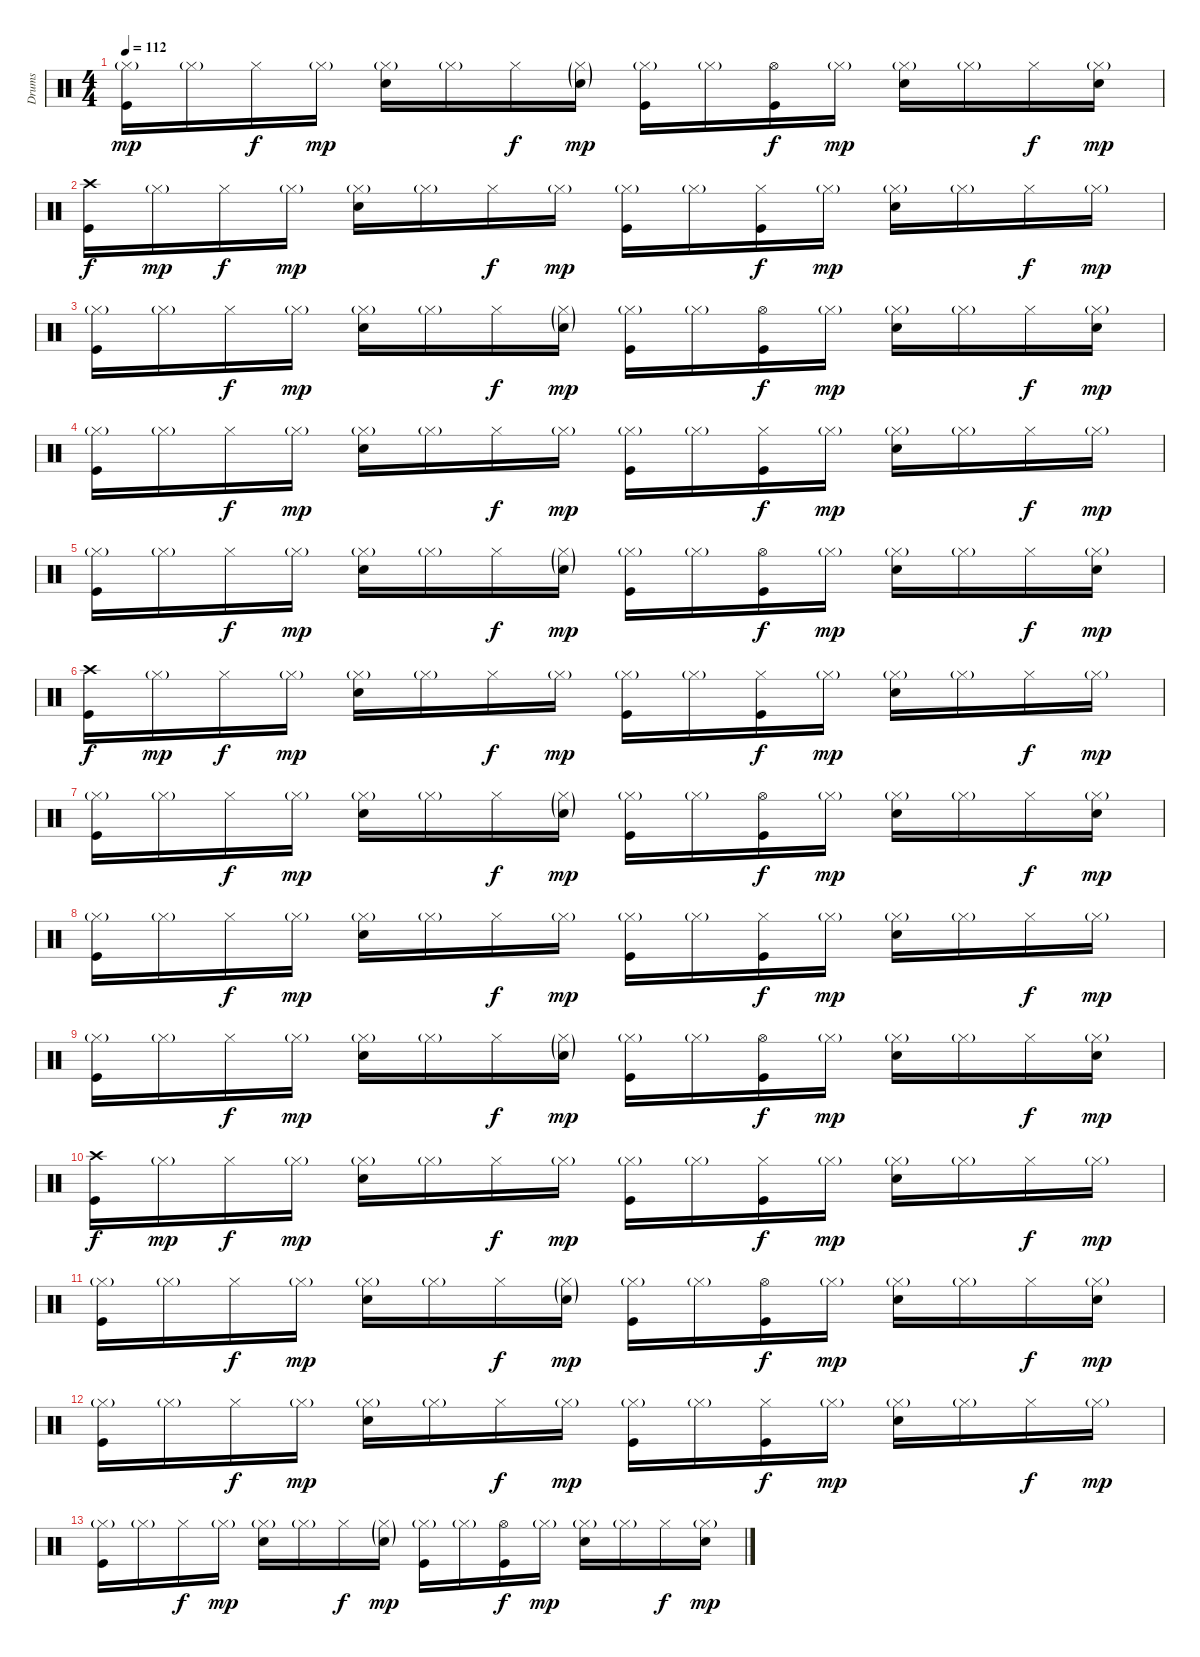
\track ("Drums" "Drums") {instrument percussion}
\staff {score}
\articulation defaults
\ts (4 4)
\tempo 112
\clef neutral
\ks c
("Hi-Hat (closed)"{g} "Kick (hit)").16{dy mp} "Hi-Hat (closed)"{g}.16 "Hi-Hat (closed)".16{dy f} "Hi-Hat (closed)"{g}.16{dy mp} ("Hi-Hat (closed)"{g} "Snare (hit) 2").16 "Hi-Hat (closed)"{g}.16 "Hi-Hat (closed)".16{dy f} ("Hi-Hat (closed)"{g} "Snare (hit) 2"{g}).16{dy mp} ("Hi-Hat (closed)"{g} "Kick (hit)").16 "Hi-Hat (closed)"{g}.16 ("Hi-Hat (open)" "Kick (hit)").16{dy f} "Hi-Hat (closed)"{g}.16{dy mp} ("Hi-Hat (closed)"{g} "Snare (hit) 2").16 "Hi-Hat (closed)"{g}.16 "Hi-Hat (closed)".16{dy f} ("Hi-Hat (closed)"{g} "Snare (hit) 2").16{dy mp} |
("Crash high (hit)" "Kick (hit)").16{dy f} "Hi-Hat (closed)"{g}.16{dy mp} "Hi-Hat (closed)".16{dy f} "Hi-Hat (closed)"{g}.16{dy mp} ("Hi-Hat (closed)"{g} "Snare (hit) 2").16 "Hi-Hat (closed)"{g}.16 "Hi-Hat (closed)".16{dy f} "Hi-Hat (closed)"{g}.16{dy mp} ("Hi-Hat (closed)"{g} "Kick (hit)").16 "Hi-Hat (closed)"{g}.16 ("Hi-Hat (closed)" "Kick (hit)").16{dy f} "Hi-Hat (closed)"{g}.16{dy mp} ("Hi-Hat (closed)"{g} "Snare (hit) 2").16 "Hi-Hat (closed)"{g}.16 "Hi-Hat (closed)".16{dy f} "Hi-Hat (closed)"{g}.16{dy mp} |
("Hi-Hat (closed)"{g} "Kick (hit)").16 "Hi-Hat (closed)"{g}.16 "Hi-Hat (closed)".16{dy f} "Hi-Hat (closed)"{g}.16{dy mp} ("Hi-Hat (closed)"{g} "Snare (hit) 2").16 "Hi-Hat (closed)"{g}.16 "Hi-Hat (closed)".16{dy f} ("Hi-Hat (closed)"{g} "Snare (hit) 2"{g}).16{dy mp} ("Hi-Hat (closed)"{g} "Kick (hit)").16 "Hi-Hat (closed)"{g}.16 ("Hi-Hat (open)" "Kick (hit)").16{dy f} "Hi-Hat (closed)"{g}.16{dy mp} ("Hi-Hat (closed)"{g} "Snare (hit) 2").16 "Hi-Hat (closed)"{g}.16 "Hi-Hat (closed)".16{dy f} ("Hi-Hat (closed)"{g} "Snare (hit) 2").16{dy mp} |
("Hi-Hat (closed)"{g} "Kick (hit)").16 "Hi-Hat (closed)"{g}.16 "Hi-Hat (closed)".16{dy f} "Hi-Hat (closed)"{g}.16{dy mp} ("Hi-Hat (closed)"{g} "Snare (hit) 2").16 "Hi-Hat (closed)"{g}.16 "Hi-Hat (closed)".16{dy f} "Hi-Hat (closed)"{g}.16{dy mp} ("Hi-Hat (closed)"{g} "Kick (hit)").16 "Hi-Hat (closed)"{g}.16 ("Hi-Hat (closed)" "Kick (hit)").16{dy f} "Hi-Hat (closed)"{g}.16{dy mp} ("Hi-Hat (closed)"{g} "Snare (hit) 2").16 "Hi-Hat (closed)"{g}.16 "Hi-Hat (closed)".16{dy f} "Hi-Hat (closed)"{g}.16{dy mp} |
("Hi-Hat (closed)"{g} "Kick (hit)").16 "Hi-Hat (closed)"{g}.16 "Hi-Hat (closed)".16{dy f} "Hi-Hat (closed)"{g}.16{dy mp} ("Hi-Hat (closed)"{g} "Snare (hit) 2").16 "Hi-Hat (closed)"{g}.16 "Hi-Hat (closed)".16{dy f} ("Hi-Hat (closed)"{g} "Snare (hit) 2"{g}).16{dy mp} ("Hi-Hat (closed)"{g} "Kick (hit)").16 "Hi-Hat (closed)"{g}.16 ("Hi-Hat (open)" "Kick (hit)").16{dy f} "Hi-Hat (closed)"{g}.16{dy mp} ("Hi-Hat (closed)"{g} "Snare (hit) 2").16 "Hi-Hat (closed)"{g}.16 "Hi-Hat (closed)".16{dy f} ("Hi-Hat (closed)"{g} "Snare (hit) 2").16{dy mp} |
("Crash high (hit)" "Kick (hit)").16{dy f} "Hi-Hat (closed)"{g}.16{dy mp} "Hi-Hat (closed)".16{dy f} "Hi-Hat (closed)"{g}.16{dy mp} ("Hi-Hat (closed)"{g} "Snare (hit) 2").16 "Hi-Hat (closed)"{g}.16 "Hi-Hat (closed)".16{dy f} "Hi-Hat (closed)"{g}.16{dy mp} ("Hi-Hat (closed)"{g} "Kick (hit)").16 "Hi-Hat (closed)"{g}.16 ("Hi-Hat (closed)" "Kick (hit)").16{dy f} "Hi-Hat (closed)"{g}.16{dy mp} ("Hi-Hat (closed)"{g} "Snare (hit) 2").16 "Hi-Hat (closed)"{g}.16 "Hi-Hat (closed)".16{dy f} "Hi-Hat (closed)"{g}.16{dy mp} |
("Hi-Hat (closed)"{g} "Kick (hit)").16 "Hi-Hat (closed)"{g}.16 "Hi-Hat (closed)".16{dy f} "Hi-Hat (closed)"{g}.16{dy mp} ("Hi-Hat (closed)"{g} "Snare (hit) 2").16 "Hi-Hat (closed)"{g}.16 "Hi-Hat (closed)".16{dy f} ("Hi-Hat (closed)"{g} "Snare (hit) 2"{g}).16{dy mp} ("Hi-Hat (closed)"{g} "Kick (hit)").16 "Hi-Hat (closed)"{g}.16 ("Hi-Hat (open)" "Kick (hit)").16{dy f} "Hi-Hat (closed)"{g}.16{dy mp} ("Hi-Hat (closed)"{g} "Snare (hit) 2").16 "Hi-Hat (closed)"{g}.16 "Hi-Hat (closed)".16{dy f} ("Hi-Hat (closed)"{g} "Snare (hit) 2").16{dy mp} |
("Hi-Hat (closed)"{g} "Kick (hit)").16 "Hi-Hat (closed)"{g}.16 "Hi-Hat (closed)".16{dy f} "Hi-Hat (closed)"{g}.16{dy mp} ("Hi-Hat (closed)"{g} "Snare (hit) 2").16 "Hi-Hat (closed)"{g}.16 "Hi-Hat (closed)".16{dy f} "Hi-Hat (closed)"{g}.16{dy mp} ("Hi-Hat (closed)"{g} "Kick (hit)").16 "Hi-Hat (closed)"{g}.16 ("Hi-Hat (closed)" "Kick (hit)").16{dy f} "Hi-Hat (closed)"{g}.16{dy mp} ("Hi-Hat (closed)"{g} "Snare (hit) 2").16 "Hi-Hat (closed)"{g}.16 "Hi-Hat (closed)".16{dy f} "Hi-Hat (closed)"{g}.16{dy mp} |
("Hi-Hat (closed)"{g} "Kick (hit)").16 "Hi-Hat (closed)"{g}.16 "Hi-Hat (closed)".16{dy f} "Hi-Hat (closed)"{g}.16{dy mp} ("Hi-Hat (closed)"{g} "Snare (hit) 2").16 "Hi-Hat (closed)"{g}.16 "Hi-Hat (closed)".16{dy f} ("Hi-Hat (closed)"{g} "Snare (hit) 2"{g}).16{dy mp} ("Hi-Hat (closed)"{g} "Kick (hit)").16 "Hi-Hat (closed)"{g}.16 ("Hi-Hat (open)" "Kick (hit)").16{dy f} "Hi-Hat (closed)"{g}.16{dy mp} ("Hi-Hat (closed)"{g} "Snare (hit) 2").16 "Hi-Hat (closed)"{g}.16 "Hi-Hat (closed)".16{dy f} ("Hi-Hat (closed)"{g} "Snare (hit) 2").16{dy mp} |
("Crash high (hit)" "Kick (hit)").16{dy f} "Hi-Hat (closed)"{g}.16{dy mp} "Hi-Hat (closed)".16{dy f} "Hi-Hat (closed)"{g}.16{dy mp} ("Hi-Hat (closed)"{g} "Snare (hit) 2").16 "Hi-Hat (closed)"{g}.16 "Hi-Hat (closed)".16{dy f} "Hi-Hat (closed)"{g}.16{dy mp} ("Hi-Hat (closed)"{g} "Kick (hit)").16 "Hi-Hat (closed)"{g}.16 ("Hi-Hat (closed)" "Kick (hit)").16{dy f} "Hi-Hat (closed)"{g}.16{dy mp} ("Hi-Hat (closed)"{g} "Snare (hit) 2").16 "Hi-Hat (closed)"{g}.16 "Hi-Hat (closed)".16{dy f} "Hi-Hat (closed)"{g}.16{dy mp} |
("Hi-Hat (closed)"{g} "Kick (hit)").16 "Hi-Hat (closed)"{g}.16 "Hi-Hat (closed)".16{dy f} "Hi-Hat (closed)"{g}.16{dy mp} ("Hi-Hat (closed)"{g} "Snare (hit) 2").16 "Hi-Hat (closed)"{g}.16 "Hi-Hat (closed)".16{dy f} ("Hi-Hat (closed)"{g} "Snare (hit) 2"{g}).16{dy mp} ("Hi-Hat (closed)"{g} "Kick (hit)").16 "Hi-Hat (closed)"{g}.16 ("Hi-Hat (open)" "Kick (hit)").16{dy f} "Hi-Hat (closed)"{g}.16{dy mp} ("Hi-Hat (closed)"{g} "Snare (hit) 2").16 "Hi-Hat (closed)"{g}.16 "Hi-Hat (closed)".16{dy f} ("Hi-Hat (closed)"{g} "Snare (hit) 2").16{dy mp} |
("Hi-Hat (closed)"{g} "Kick (hit)").16 "Hi-Hat (closed)"{g}.16 "Hi-Hat (closed)".16{dy f} "Hi-Hat (closed)"{g}.16{dy mp} ("Hi-Hat (closed)"{g} "Snare (hit) 2").16 "Hi-Hat (closed)"{g}.16 "Hi-Hat (closed)".16{dy f} "Hi-Hat (closed)"{g}.16{dy mp} ("Hi-Hat (closed)"{g} "Kick (hit)").16 "Hi-Hat (closed)"{g}.16 ("Hi-Hat (closed)" "Kick (hit)").16{dy f} "Hi-Hat (closed)"{g}.16{dy mp} ("Hi-Hat (closed)"{g} "Snare (hit) 2").16 "Hi-Hat (closed)"{g}.16 "Hi-Hat (closed)".16{dy f} "Hi-Hat (closed)"{g}.16{dy mp} |
("Hi-Hat (closed)"{g} "Kick (hit)").16 "Hi-Hat (closed)"{g}.16 "Hi-Hat (closed)".16{dy f} "Hi-Hat (closed)"{g}.16{dy mp} ("Hi-Hat (closed)"{g} "Snare (hit) 2").16 "Hi-Hat (closed)"{g}.16 "Hi-Hat (closed)".16{dy f} ("Hi-Hat (closed)"{g} "Snare (hit) 2"{g}).16{dy mp} ("Hi-Hat (closed)"{g} "Kick (hit)").16 "Hi-Hat (closed)"{g}.16 ("Hi-Hat (open)" "Kick (hit)").16{dy f} "Hi-Hat (closed)"{g}.16{dy mp} ("Hi-Hat (closed)"{g} "Snare (hit) 2").16 "Hi-Hat (closed)"{g}.16 "Hi-Hat (closed)".16{dy f} ("Hi-Hat (closed)"{g} "Snare (hit) 2").16{dy mp}
